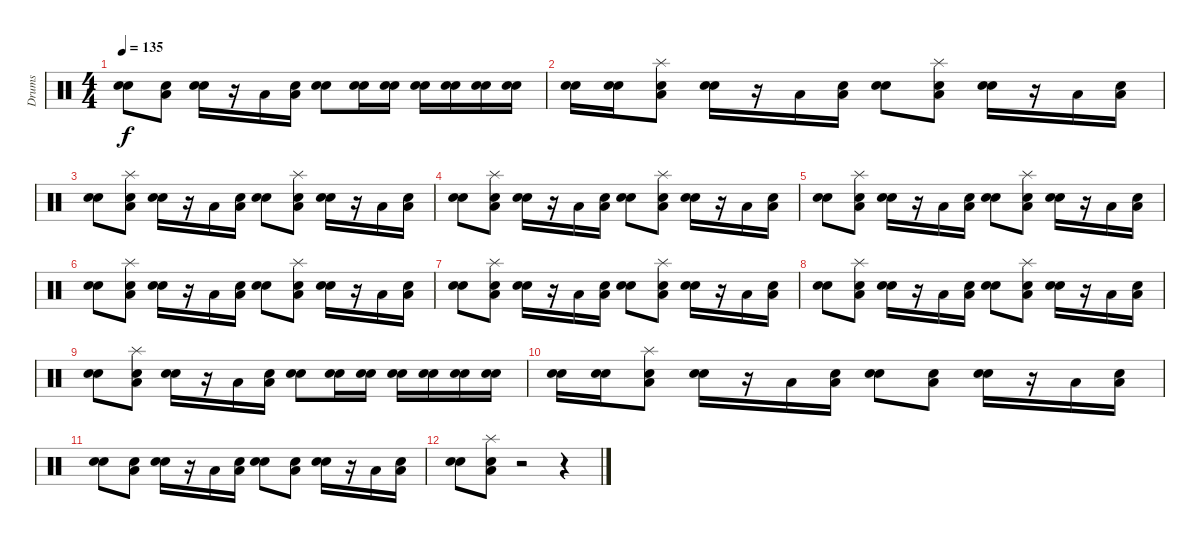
\track ("Drums" "Drums") {instrument percussion}
\staff {score}
\articulation defaults
\ts (4 4)
\tempo 135
\clef neutral
\ks c
("Snare (hit)" "Electric Snare (hit)").8{dy f} ("Snare (hit)" "Low Floor Tom (hit)").8 ("Snare (hit)" "Electric Snare (hit)").16 r.16 "Low Floor Tom (hit)".16 ("Snare (hit)" "Low Floor Tom (hit)").16 ("Snare (hit)" "Electric Snare (hit)").8 ("Snare (hit)" "Electric Snare (hit)").16 ("Snare (hit)" "Electric Snare (hit)").16 ("Snare (hit)" "Electric Snare (hit)").16 ("Snare (hit)" "Electric Snare (hit)").16 ("Snare (hit)" "Electric Snare (hit)").16 ("Snare (hit)" "Electric Snare (hit)").16 |
("Snare (hit)" "Electric Snare (hit)").16 ("Snare (hit)" "Electric Snare (hit)").16 ("Snare (hit)" "Low Floor Tom (hit)" "Splash (hit)").8 ("Snare (hit)" "Electric Snare (hit)").16 r.16 "Low Floor Tom (hit)".16 ("Snare (hit)" "Low Floor Tom (hit)").16 ("Snare (hit)" "Electric Snare (hit)").8 ("Snare (hit)" "Low Floor Tom (hit)" "Splash (hit)").8 ("Snare (hit)" "Electric Snare (hit)").16 r.16 "Low Floor Tom (hit)".16 ("Snare (hit)" "Low Floor Tom (hit)").16 |
("Snare (hit)" "Electric Snare (hit)").8 ("Snare (hit)" "Low Floor Tom (hit)" "Splash (hit)").8 ("Snare (hit)" "Electric Snare (hit)").16 r.16 "Low Floor Tom (hit)".16 ("Snare (hit)" "Low Floor Tom (hit)").16 ("Snare (hit)" "Electric Snare (hit)").8 ("Snare (hit)" "Low Floor Tom (hit)" "Splash (hit)").8 ("Snare (hit)" "Electric Snare (hit)").16 r.16 "Low Floor Tom (hit)".16 ("Snare (hit)" "Low Floor Tom (hit)").16 |
("Snare (hit)" "Electric Snare (hit)").8 ("Snare (hit)" "Low Floor Tom (hit)" "Splash (hit)").8 ("Snare (hit)" "Electric Snare (hit)").16 r.16 "Low Floor Tom (hit)".16 ("Snare (hit)" "Low Floor Tom (hit)").16 ("Snare (hit)" "Electric Snare (hit)").8 ("Snare (hit)" "Low Floor Tom (hit)" "Splash (hit)").8 ("Snare (hit)" "Electric Snare (hit)").16 r.16 "Low Floor Tom (hit)".16 ("Snare (hit)" "Low Floor Tom (hit)").16 |
("Snare (hit)" "Electric Snare (hit)").8 ("Snare (hit)" "Low Floor Tom (hit)" "Splash (hit)").8 ("Snare (hit)" "Electric Snare (hit)").16 r.16 "Low Floor Tom (hit)".16 ("Snare (hit)" "Low Floor Tom (hit)").16 ("Snare (hit)" "Electric Snare (hit)").8 ("Snare (hit)" "Low Floor Tom (hit)" "Splash (hit)").8 ("Snare (hit)" "Electric Snare (hit)").16 r.16 "Low Floor Tom (hit)".16 ("Snare (hit)" "Low Floor Tom (hit)").16 |
("Snare (hit)" "Electric Snare (hit)").8 ("Snare (hit)" "Low Floor Tom (hit)" "Splash (hit)").8 ("Snare (hit)" "Electric Snare (hit)").16 r.16 "Low Floor Tom (hit)".16 ("Snare (hit)" "Low Floor Tom (hit)").16 ("Snare (hit)" "Electric Snare (hit)").8 ("Snare (hit)" "Low Floor Tom (hit)" "Splash (hit)").8 ("Snare (hit)" "Electric Snare (hit)").16 r.16 "Low Floor Tom (hit)".16 ("Snare (hit)" "Low Floor Tom (hit)").16 |
("Snare (hit)" "Electric Snare (hit)").8 ("Snare (hit)" "Low Floor Tom (hit)" "Splash (hit)").8 ("Snare (hit)" "Electric Snare (hit)").16 r.16 "Low Floor Tom (hit)".16 ("Snare (hit)" "Low Floor Tom (hit)").16 ("Snare (hit)" "Electric Snare (hit)").8 ("Snare (hit)" "Low Floor Tom (hit)" "Splash (hit)").8 ("Snare (hit)" "Electric Snare (hit)").16 r.16 "Low Floor Tom (hit)".16 ("Snare (hit)" "Low Floor Tom (hit)").16 |
("Snare (hit)" "Electric Snare (hit)").8 ("Snare (hit)" "Low Floor Tom (hit)" "Splash (hit)").8 ("Snare (hit)" "Electric Snare (hit)").16 r.16 "Low Floor Tom (hit)".16 ("Snare (hit)" "Low Floor Tom (hit)").16 ("Snare (hit)" "Electric Snare (hit)").8 ("Snare (hit)" "Low Floor Tom (hit)" "Splash (hit)").8 ("Snare (hit)" "Electric Snare (hit)").16 r.16 "Low Floor Tom (hit)".16 ("Snare (hit)" "Low Floor Tom (hit)").16 |
("Snare (hit)" "Electric Snare (hit)").8 ("Snare (hit)" "Low Floor Tom (hit)" "Splash (hit)").8 ("Snare (hit)" "Electric Snare (hit)").16 r.16 "Low Floor Tom (hit)".16 ("Snare (hit)" "Low Floor Tom (hit)").16 ("Snare (hit)" "Electric Snare (hit)").8 ("Snare (hit)" "Electric Snare (hit)").16 ("Snare (hit)" "Electric Snare (hit)").16 ("Snare (hit)" "Electric Snare (hit)").16 ("Snare (hit)" "Electric Snare (hit)").16 ("Snare (hit)" "Electric Snare (hit)").16 ("Snare (hit)" "Electric Snare (hit)").16 |
("Snare (hit)" "Electric Snare (hit)").16 ("Snare (hit)" "Electric Snare (hit)").16 ("Snare (hit)" "Low Floor Tom (hit)" "Splash (hit)").8 ("Snare (hit)" "Electric Snare (hit)").16 r.16 "Low Floor Tom (hit)".16 ("Snare (hit)" "Low Floor Tom (hit)").16 ("Snare (hit)" "Electric Snare (hit)").8 ("Snare (hit)" "Low Floor Tom (hit)").8 ("Snare (hit)" "Electric Snare (hit)").16 r.16 "Low Floor Tom (hit)".16 ("Snare (hit)" "Low Floor Tom (hit)").16 |
("Snare (hit)" "Electric Snare (hit)").8 ("Snare (hit)" "Low Floor Tom (hit)").8 ("Snare (hit)" "Electric Snare (hit)").16 r.16 "Low Floor Tom (hit)".16 ("Snare (hit)" "Low Floor Tom (hit)").16 ("Snare (hit)" "Electric Snare (hit)").8 ("Snare (hit)" "Low Floor Tom (hit)").8 ("Snare (hit)" "Electric Snare (hit)").16 r.16 "Low Floor Tom (hit)".16 ("Snare (hit)" "Low Floor Tom (hit)").16 |
("Snare (hit)" "Electric Snare (hit)").8 ("Snare (hit)" "Low Floor Tom (hit)" "Splash (hit)").8 r.2 r.4
